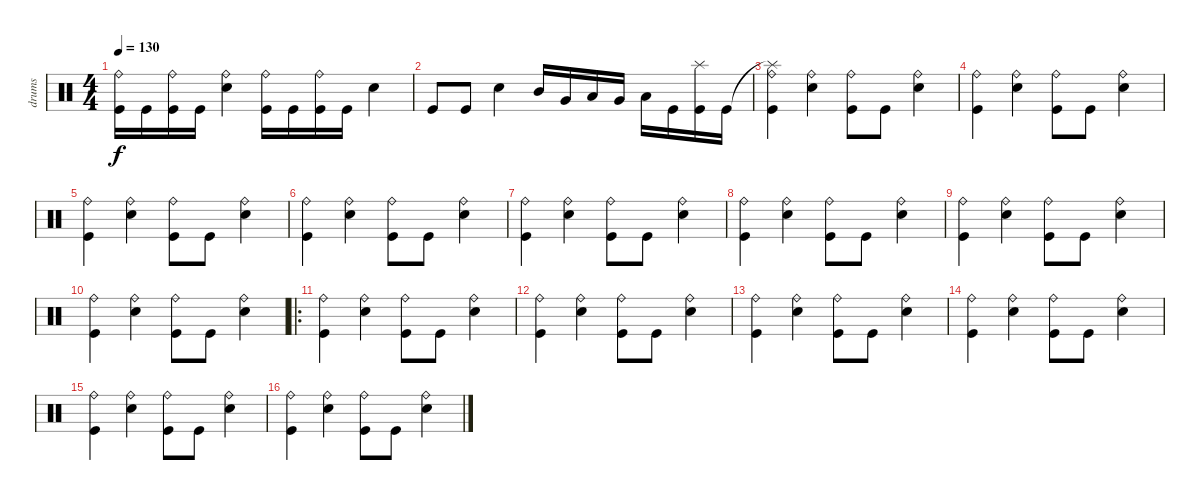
\track ("drums" "drums") {instrument percussion}
\staff {score}
\articulation defaults
\ts (4 4)
\tempo 130
\clef neutral
\ks c
("Ride (bell)" "Kick (hit)").16{dy f} "Kick (hit)".16 ("Ride (bell)" "Kick (hit)").16 "Kick (hit)".16 ("Ride (bell)" "Electric Snare (hit)").4 ("Ride (bell)" "Kick (hit)").16 "Kick (hit)".16 ("Ride (bell)" "Kick (hit)").16 "Kick (hit)".16 "Electric Snare (hit)".4 |
"Kick (hit)".8 "Kick (hit)".8 "Electric Snare (hit)".4 "Mid Tom (hit)".16 "Very Low Tom (hit)".16 "Low Tom (hit)".16 "Very Low Tom (hit)".16 "Low Floor Tom (hit)".16 "Kick (hit)".16 ("Splash (hit)" "Kick (hit)").16 "Kick (hit)".16 |
("Splash (hit)"{t} "Ride (bell)" "Kick (hit)").4 ("Ride (bell)" "Electric Snare (hit)").4 ("Ride (bell)" "Kick (hit)").8 "Kick (hit)".8 ("Ride (bell)" "Electric Snare (hit)").4 |
("Ride (bell)" "Kick (hit)").4 ("Ride (bell)" "Electric Snare (hit)").4 ("Ride (bell)" "Kick (hit)").8 "Kick (hit)".8 ("Ride (bell)" "Electric Snare (hit)").4 |
("Ride (bell)" "Kick (hit)").4 ("Ride (bell)" "Electric Snare (hit)").4 ("Ride (bell)" "Kick (hit)").8 "Kick (hit)".8 ("Ride (bell)" "Electric Snare (hit)").4 |
("Ride (bell)" "Kick (hit)").4 ("Ride (bell)" "Electric Snare (hit)").4 ("Ride (bell)" "Kick (hit)").8 "Kick (hit)".8 ("Ride (bell)" "Electric Snare (hit)").4 |
("Ride (bell)" "Kick (hit)").4 ("Ride (bell)" "Electric Snare (hit)").4 ("Ride (bell)" "Kick (hit)").8 "Kick (hit)".8 ("Ride (bell)" "Electric Snare (hit)").4 |
("Ride (bell)" "Kick (hit)").4 ("Ride (bell)" "Electric Snare (hit)").4 ("Ride (bell)" "Kick (hit)").8 "Kick (hit)".8 ("Ride (bell)" "Electric Snare (hit)").4 |
("Ride (bell)" "Kick (hit)").4 ("Ride (bell)" "Electric Snare (hit)").4 ("Ride (bell)" "Kick (hit)").8 "Kick (hit)".8 ("Ride (bell)" "Electric Snare (hit)").4 |
("Ride (bell)" "Kick (hit)").4 ("Ride (bell)" "Electric Snare (hit)").4 ("Ride (bell)" "Kick (hit)").8 "Kick (hit)".8 ("Ride (bell)" "Electric Snare (hit)").4 |
\ro
("Ride (bell)" "Kick (hit)").4 ("Ride (bell)" "Electric Snare (hit)").4 ("Ride (bell)" "Kick (hit)").8 "Kick (hit)".8 ("Ride (bell)" "Electric Snare (hit)").4 |
("Ride (bell)" "Kick (hit)").4 ("Ride (bell)" "Electric Snare (hit)").4 ("Ride (bell)" "Kick (hit)").8 "Kick (hit)".8 ("Ride (bell)" "Electric Snare (hit)").4 |
("Ride (bell)" "Kick (hit)").4 ("Ride (bell)" "Electric Snare (hit)").4 ("Ride (bell)" "Kick (hit)").8 "Kick (hit)".8 ("Ride (bell)" "Electric Snare (hit)").4 |
("Ride (bell)" "Kick (hit)").4 ("Ride (bell)" "Electric Snare (hit)").4 ("Ride (bell)" "Kick (hit)").8 "Kick (hit)".8 ("Ride (bell)" "Electric Snare (hit)").4 |
("Ride (bell)" "Kick (hit)").4 ("Ride (bell)" "Electric Snare (hit)").4 ("Ride (bell)" "Kick (hit)").8 "Kick (hit)".8 ("Ride (bell)" "Electric Snare (hit)").4 |
("Ride (bell)" "Kick (hit)").4 ("Ride (bell)" "Electric Snare (hit)").4 ("Ride (bell)" "Kick (hit)").8 "Kick (hit)".8 ("Ride (bell)" "Electric Snare (hit)").4
